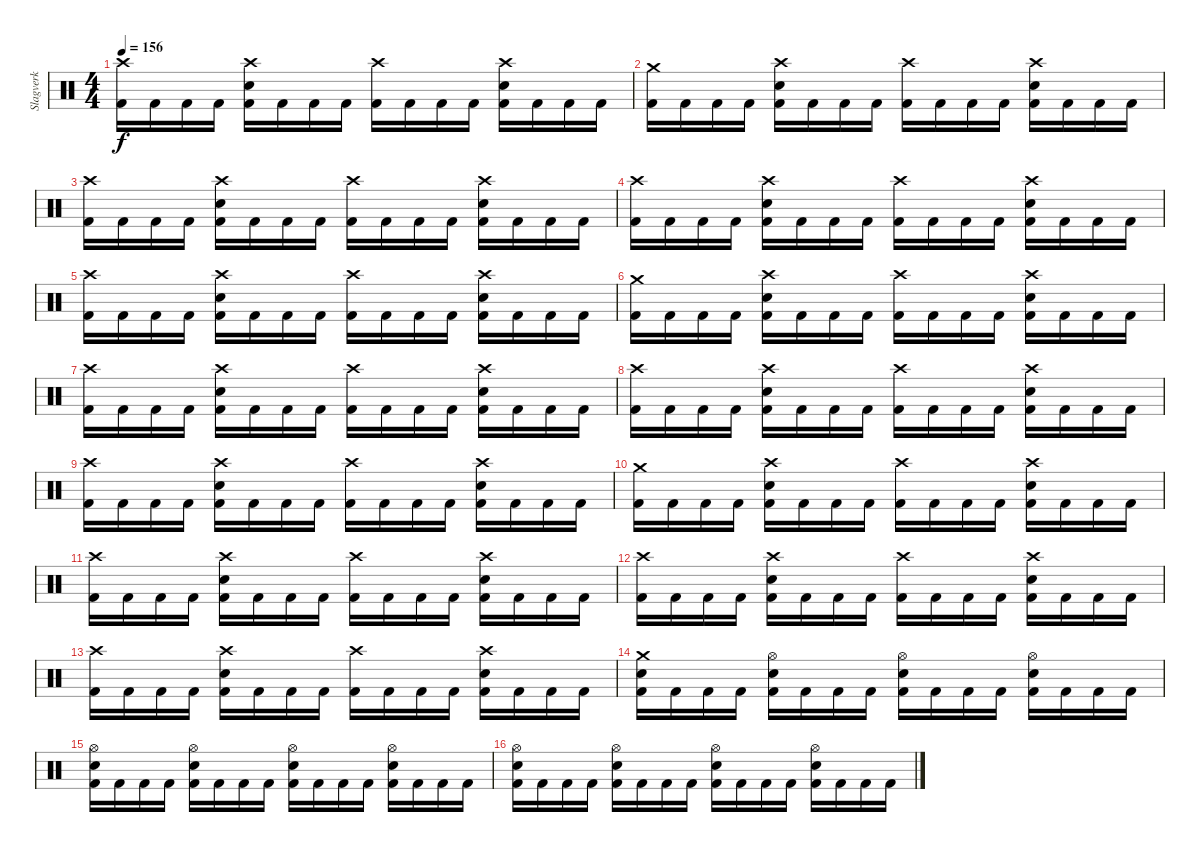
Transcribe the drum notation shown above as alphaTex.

\track ("Slagverk" "Slagverk") {instrument percussion}
\staff {score}
\articulation defaults
\ts (4 4)
\tempo 156
\clef neutral
\ks c
("Crash high (hit)" "Kick (hit) 2").16{dy f} "Kick (hit) 2".16 "Kick (hit) 2".16 "Kick (hit) 2".16 ("Crash high (hit)" "Snare (hit) 2" "Kick (hit) 2").16 "Kick (hit) 2".16 "Kick (hit) 2".16 "Kick (hit) 2".16 ("Crash high (hit)" "Kick (hit) 2").16 "Kick (hit) 2".16 "Kick (hit) 2".16 "Kick (hit) 2".16 ("Crash high (hit)" "Snare (hit) 2" "Kick (hit) 2").16 "Kick (hit) 2".16 "Kick (hit) 2".16 "Kick (hit) 2".16 |
("Crash medium (hit)" "Kick (hit) 2").16 "Kick (hit) 2".16 "Kick (hit) 2".16 "Kick (hit) 2".16 ("Crash high (hit)" "Snare (hit) 2" "Kick (hit) 2").16 "Kick (hit) 2".16 "Kick (hit) 2".16 "Kick (hit) 2".16 ("Crash high (hit)" "Kick (hit) 2").16 "Kick (hit) 2".16 "Kick (hit) 2".16 "Kick (hit) 2".16 ("Crash high (hit)" "Snare (hit) 2" "Kick (hit) 2").16 "Kick (hit) 2".16 "Kick (hit) 2".16 "Kick (hit) 2".16 |
("Crash high (hit)" "Kick (hit) 2").16 "Kick (hit) 2".16 "Kick (hit) 2".16 "Kick (hit) 2".16 ("Crash high (hit)" "Snare (hit) 2" "Kick (hit) 2").16 "Kick (hit) 2".16 "Kick (hit) 2".16 "Kick (hit) 2".16 ("Crash high (hit)" "Kick (hit) 2").16 "Kick (hit) 2".16 "Kick (hit) 2".16 "Kick (hit) 2".16 ("Crash high (hit)" "Snare (hit) 2" "Kick (hit) 2").16 "Kick (hit) 2".16 "Kick (hit) 2".16 "Kick (hit) 2".16 |
("Crash high (hit)" "Kick (hit) 2").16 "Kick (hit) 2".16 "Kick (hit) 2".16 "Kick (hit) 2".16 ("Crash high (hit)" "Snare (hit) 2" "Kick (hit) 2").16 "Kick (hit) 2".16 "Kick (hit) 2".16 "Kick (hit) 2".16 ("Crash high (hit)" "Kick (hit) 2").16 "Kick (hit) 2".16 "Kick (hit) 2".16 "Kick (hit) 2".16 ("Crash high (hit)" "Snare (hit) 2" "Kick (hit) 2").16 "Kick (hit) 2".16 "Kick (hit) 2".16 "Kick (hit) 2".16 |
("Crash high (hit)" "Kick (hit) 2").16 "Kick (hit) 2".16 "Kick (hit) 2".16 "Kick (hit) 2".16 ("Crash high (hit)" "Snare (hit) 2" "Kick (hit) 2").16 "Kick (hit) 2".16 "Kick (hit) 2".16 "Kick (hit) 2".16 ("Crash high (hit)" "Kick (hit) 2").16 "Kick (hit) 2".16 "Kick (hit) 2".16 "Kick (hit) 2".16 ("Crash high (hit)" "Snare (hit) 2" "Kick (hit) 2").16 "Kick (hit) 2".16 "Kick (hit) 2".16 "Kick (hit) 2".16 |
("Crash medium (hit)" "Kick (hit) 2").16 "Kick (hit) 2".16 "Kick (hit) 2".16 "Kick (hit) 2".16 ("Crash high (hit)" "Snare (hit) 2" "Kick (hit) 2").16 "Kick (hit) 2".16 "Kick (hit) 2".16 "Kick (hit) 2".16 ("Crash high (hit)" "Kick (hit) 2").16 "Kick (hit) 2".16 "Kick (hit) 2".16 "Kick (hit) 2".16 ("Crash high (hit)" "Snare (hit) 2" "Kick (hit) 2").16 "Kick (hit) 2".16 "Kick (hit) 2".16 "Kick (hit) 2".16 |
("Crash high (hit)" "Kick (hit) 2").16 "Kick (hit) 2".16 "Kick (hit) 2".16 "Kick (hit) 2".16 ("Crash high (hit)" "Snare (hit) 2" "Kick (hit) 2").16 "Kick (hit) 2".16 "Kick (hit) 2".16 "Kick (hit) 2".16 ("Crash high (hit)" "Kick (hit) 2").16 "Kick (hit) 2".16 "Kick (hit) 2".16 "Kick (hit) 2".16 ("Crash high (hit)" "Snare (hit) 2" "Kick (hit) 2").16 "Kick (hit) 2".16 "Kick (hit) 2".16 "Kick (hit) 2".16 |
("Crash high (hit)" "Kick (hit) 2").16 "Kick (hit) 2".16 "Kick (hit) 2".16 "Kick (hit) 2".16 ("Crash high (hit)" "Snare (hit) 2" "Kick (hit) 2").16 "Kick (hit) 2".16 "Kick (hit) 2".16 "Kick (hit) 2".16 ("Crash high (hit)" "Kick (hit) 2").16 "Kick (hit) 2".16 "Kick (hit) 2".16 "Kick (hit) 2".16 ("Crash high (hit)" "Snare (hit) 2" "Kick (hit) 2").16 "Kick (hit) 2".16 "Kick (hit) 2".16 "Kick (hit) 2".16 |
("Crash high (hit)" "Kick (hit) 2").16 "Kick (hit) 2".16 "Kick (hit) 2".16 "Kick (hit) 2".16 ("Crash high (hit)" "Snare (hit) 2" "Kick (hit) 2").16 "Kick (hit) 2".16 "Kick (hit) 2".16 "Kick (hit) 2".16 ("Crash high (hit)" "Kick (hit) 2").16 "Kick (hit) 2".16 "Kick (hit) 2".16 "Kick (hit) 2".16 ("Crash high (hit)" "Snare (hit) 2" "Kick (hit) 2").16 "Kick (hit) 2".16 "Kick (hit) 2".16 "Kick (hit) 2".16 |
("Crash medium (hit)" "Kick (hit) 2").16 "Kick (hit) 2".16 "Kick (hit) 2".16 "Kick (hit) 2".16 ("Crash high (hit)" "Snare (hit) 2" "Kick (hit) 2").16 "Kick (hit) 2".16 "Kick (hit) 2".16 "Kick (hit) 2".16 ("Crash high (hit)" "Kick (hit) 2").16 "Kick (hit) 2".16 "Kick (hit) 2".16 "Kick (hit) 2".16 ("Crash high (hit)" "Snare (hit) 2" "Kick (hit) 2").16 "Kick (hit) 2".16 "Kick (hit) 2".16 "Kick (hit) 2".16 |
("Crash high (hit)" "Kick (hit) 2").16 "Kick (hit) 2".16 "Kick (hit) 2".16 "Kick (hit) 2".16 ("Crash high (hit)" "Snare (hit) 2" "Kick (hit) 2").16 "Kick (hit) 2".16 "Kick (hit) 2".16 "Kick (hit) 2".16 ("Crash high (hit)" "Kick (hit) 2").16 "Kick (hit) 2".16 "Kick (hit) 2".16 "Kick (hit) 2".16 ("Crash high (hit)" "Snare (hit) 2" "Kick (hit) 2").16 "Kick (hit) 2".16 "Kick (hit) 2".16 "Kick (hit) 2".16 |
("Crash high (hit)" "Kick (hit) 2").16 "Kick (hit) 2".16 "Kick (hit) 2".16 "Kick (hit) 2".16 ("Crash high (hit)" "Snare (hit) 2" "Kick (hit) 2").16 "Kick (hit) 2".16 "Kick (hit) 2".16 "Kick (hit) 2".16 ("Crash high (hit)" "Kick (hit) 2").16 "Kick (hit) 2".16 "Kick (hit) 2".16 "Kick (hit) 2".16 ("Crash high (hit)" "Snare (hit) 2" "Kick (hit) 2").16 "Kick (hit) 2".16 "Kick (hit) 2".16 "Kick (hit) 2".16 |
("Crash high (hit)" "Kick (hit) 2").16 "Kick (hit) 2".16 "Kick (hit) 2".16 "Kick (hit) 2".16 ("Crash high (hit)" "Snare (hit) 2" "Kick (hit) 2").16 "Kick (hit) 2".16 "Kick (hit) 2".16 "Kick (hit) 2".16 ("Crash high (hit)" "Kick (hit) 2").16 "Kick (hit) 2".16 "Kick (hit) 2".16 "Kick (hit) 2".16 ("Crash high (hit)" "Snare (hit) 2" "Kick (hit) 2").16 "Kick (hit) 2".16 "Kick (hit) 2".16 "Kick (hit) 2".16 |
("Crash medium (hit)" "Snare (hit) 2" "Kick (hit) 2").16 "Kick (hit) 2".16 "Kick (hit) 2".16 "Kick (hit) 2".16 ("Hi-Hat (open)" "Snare (hit) 2" "Kick (hit) 2").16 "Kick (hit) 2".16 "Kick (hit) 2".16 "Kick (hit) 2".16 ("Hi-Hat (open)" "Snare (hit) 2" "Kick (hit) 2").16 "Kick (hit) 2".16 "Kick (hit) 2".16 "Kick (hit) 2".16 ("Hi-Hat (open)" "Snare (hit) 2" "Kick (hit) 2").16 "Kick (hit) 2".16 "Kick (hit) 2".16 "Kick (hit) 2".16 |
("Hi-Hat (open)" "Snare (hit) 2" "Kick (hit) 2").16 "Kick (hit) 2".16 "Kick (hit) 2".16 "Kick (hit) 2".16 ("Hi-Hat (open)" "Snare (hit) 2" "Kick (hit) 2").16 "Kick (hit) 2".16 "Kick (hit) 2".16 "Kick (hit) 2".16 ("Hi-Hat (open)" "Snare (hit) 2" "Kick (hit) 2").16 "Kick (hit) 2".16 "Kick (hit) 2".16 "Kick (hit) 2".16 ("Hi-Hat (open)" "Snare (hit) 2" "Kick (hit) 2").16 "Kick (hit) 2".16 "Kick (hit) 2".16 "Kick (hit) 2".16 |
("Hi-Hat (open)" "Snare (hit) 2" "Kick (hit) 2").16 "Kick (hit) 2".16 "Kick (hit) 2".16 "Kick (hit) 2".16 ("Hi-Hat (open)" "Snare (hit) 2" "Kick (hit) 2").16 "Kick (hit) 2".16 "Kick (hit) 2".16 "Kick (hit) 2".16 ("Hi-Hat (open)" "Snare (hit) 2" "Kick (hit) 2").16 "Kick (hit) 2".16 "Kick (hit) 2".16 "Kick (hit) 2".16 ("Hi-Hat (open)" "Snare (hit) 2" "Kick (hit) 2").16 "Kick (hit) 2".16 "Kick (hit) 2".16 "Kick (hit) 2".16
